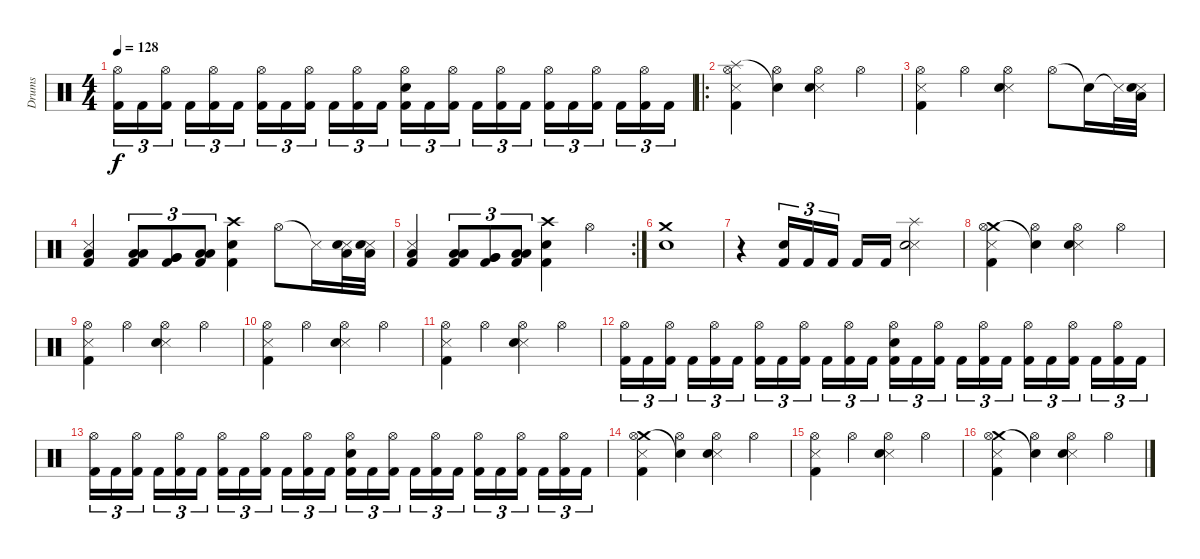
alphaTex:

\track ("Drums" "Drums") {instrument percussion}
\staff {score}
\articulation defaults
\ts (4 4)
\tempo 128
\clef neutral
\ks c
("Hi-Hat (open)" "Kick (hit) 2").16{tu (3 2) dy f} "Kick (hit) 2".16{tu (3 2)} ("Hi-Hat (open)" "Kick (hit) 2").16{tu (3 2)} "Kick (hit) 2".16{tu (3 2)} ("Hi-Hat (open)" "Kick (hit) 2").16{tu (3 2)} "Kick (hit) 2".16{tu (3 2)} ("Hi-Hat (open)" "Kick (hit) 2").16{tu (3 2)} "Kick (hit) 2".16{tu (3 2)} ("Hi-Hat (open)" "Kick (hit) 2").16{tu (3 2)} "Kick (hit) 2".16{tu (3 2)} ("Hi-Hat (open)" "Kick (hit) 2").16{tu (3 2)} "Kick (hit) 2".16{tu (3 2)} ("Hi-Hat (open)" "Electric Snare (hit)" "Kick (hit) 2").16{tu (3 2)} "Kick (hit) 2".16{tu (3 2)} ("Hi-Hat (open)" "Kick (hit) 2").16{tu (3 2)} "Kick (hit) 2".16{tu (3 2)} ("Hi-Hat (open)" "Kick (hit) 2").16{tu (3 2)} "Kick (hit) 2".16{tu (3 2)} ("Hi-Hat (open)" "Kick (hit) 2").16{tu (3 2)} "Kick (hit) 2".16{tu (3 2)} ("Hi-Hat (open)" "Kick (hit) 2").16{tu (3 2)} "Kick (hit) 2".16{tu (3 2)} ("Hi-Hat (open)" "Kick (hit) 2").16{tu (3 2)} "Kick (hit) 2".16{tu (3 2)} |
\ro
("Splash (hit)" "Snare (side stick) 3" "Hi-Hat (open)" "Kick (hit) 2").4 ("Snare (hit)"{t} "Hi-Hat (open)").4 ("Snare (side stick) 3" "Hi-Hat (open)" "Electric Snare (hit)").4 "Hi-Hat (open)".4 |
("Snare (side stick) 3" "Hi-Hat (open)" "Kick (hit) 2").4 "Hi-Hat (open)".4 ("Snare (side stick) 3" "Hi-Hat (open)" "Electric Snare (hit)").4 "Hi-Hat (open)".8 "Snare (hit)"{t}.16 "Snare (side stick) 3"{t}.32 ("Snare (side stick) 3" "Low Floor Tom (hit)" "Electric Snare (hit)").32 |
("Snare (side stick) 3" "Low Floor Tom (hit)" "Kick (hit) 2").4 ("Low Tom (hit)" "Low Tom (hit)" "Kick (hit) 2").8{tu (3 2)} ("Very Low Tom (hit)" "Very Low Tom (hit)" "Kick (hit) 2").8{tu (3 2)} ("Low Floor Tom (hit)" "Low Floor Tom (hit)" "Kick (hit) 2").8{tu (3 2)} ("Crash high (hit)" "Electric Snare (hit)" "Kick (hit) 2").4 "Hi-Hat (open)".8 "Snare (side stick) 3"{t}.16 ("Snare (side stick) 3" "Low Floor Tom (hit)" "Electric Snare (hit)").32 ("Snare (side stick) 3" "Low Floor Tom (hit)" "Electric Snare (hit)").32 |
\rc 2
("Snare (side stick) 3" "Low Floor Tom (hit)" "Kick (hit) 2").4 ("Low Tom (hit)" "Low Tom (hit)" "Kick (hit) 2").8{tu (3 2)} ("Very Low Tom (hit)" "Very Low Tom (hit)" "Kick (hit) 2").8{tu (3 2)} ("Low Floor Tom (hit)" "Low Floor Tom (hit)" "Kick (hit) 2").8{tu (3 2)} ("Crash high (hit)" "Electric Snare (hit)" "Kick (hit) 2").4 "Hi-Hat (open)".4 |
("Crash medium (hit)" "Electric Snare (hit)").1 |
r.4 ("Electric Snare (hit)" "Kick (hit) 2").16{tu (3 2)} "Kick (hit) 2".16{tu (3 2)} "Kick (hit) 2".16{tu (3 2)} "Kick (hit) 2".16 "Kick (hit) 2".16 ("Splash (hit)" "Snare (side stick) 3" "Electric Snare (hit)").2 |
("Crash medium (hit)" "Snare (side stick) 3" "Hi-Hat (open)" "Kick (hit) 2").4 ("Snare (hit)"{t} "Hi-Hat (open)").4 ("Snare (side stick) 3" "Hi-Hat (open)" "Electric Snare (hit)").4 "Hi-Hat (open)".4 |
("Snare (side stick) 3" "Hi-Hat (open)" "Kick (hit) 2").4 "Hi-Hat (open)".4 ("Snare (side stick) 3" "Hi-Hat (open)" "Electric Snare (hit)").4 "Hi-Hat (open)".4 |
("Snare (side stick) 3" "Hi-Hat (open)" "Kick (hit) 2").4 "Hi-Hat (open)".4 ("Snare (side stick) 3" "Hi-Hat (open)" "Electric Snare (hit)").4 "Hi-Hat (open)".4 |
("Snare (side stick) 3" "Hi-Hat (open)" "Kick (hit) 2").4 "Hi-Hat (open)".4 ("Snare (side stick) 3" "Hi-Hat (open)" "Electric Snare (hit)").4 "Hi-Hat (open)".4 |
("Hi-Hat (open)" "Kick (hit) 2").16{tu (3 2)} "Kick (hit) 2".16{tu (3 2)} ("Hi-Hat (open)" "Kick (hit) 2").16{tu (3 2)} "Kick (hit) 2".16{tu (3 2)} ("Hi-Hat (open)" "Kick (hit) 2").16{tu (3 2)} "Kick (hit) 2".16{tu (3 2)} ("Hi-Hat (open)" "Kick (hit) 2").16{tu (3 2)} "Kick (hit) 2".16{tu (3 2)} ("Hi-Hat (open)" "Kick (hit) 2").16{tu (3 2)} "Kick (hit) 2".16{tu (3 2)} ("Hi-Hat (open)" "Kick (hit) 2").16{tu (3 2)} "Kick (hit) 2".16{tu (3 2)} ("Hi-Hat (open)" "Electric Snare (hit)" "Kick (hit) 2").16{tu (3 2)} "Kick (hit) 2".16{tu (3 2)} ("Hi-Hat (open)" "Kick (hit) 2").16{tu (3 2)} "Kick (hit) 2".16{tu (3 2)} ("Hi-Hat (open)" "Kick (hit) 2").16{tu (3 2)} "Kick (hit) 2".16{tu (3 2)} ("Hi-Hat (open)" "Kick (hit) 2").16{tu (3 2)} "Kick (hit) 2".16{tu (3 2)} ("Hi-Hat (open)" "Kick (hit) 2").16{tu (3 2)} "Kick (hit) 2".16{tu (3 2)} ("Hi-Hat (open)" "Kick (hit) 2").16{tu (3 2)} "Kick (hit) 2".16{tu (3 2)} |
("Hi-Hat (open)" "Kick (hit) 2").16{tu (3 2)} "Kick (hit) 2".16{tu (3 2)} ("Hi-Hat (open)" "Kick (hit) 2").16{tu (3 2)} "Kick (hit) 2".16{tu (3 2)} ("Hi-Hat (open)" "Kick (hit) 2").16{tu (3 2)} "Kick (hit) 2".16{tu (3 2)} ("Hi-Hat (open)" "Kick (hit) 2").16{tu (3 2)} "Kick (hit) 2".16{tu (3 2)} ("Hi-Hat (open)" "Kick (hit) 2").16{tu (3 2)} "Kick (hit) 2".16{tu (3 2)} ("Hi-Hat (open)" "Kick (hit) 2").16{tu (3 2)} "Kick (hit) 2".16{tu (3 2)} ("Hi-Hat (open)" "Electric Snare (hit)" "Kick (hit) 2").16{tu (3 2)} "Kick (hit) 2".16{tu (3 2)} ("Hi-Hat (open)" "Kick (hit) 2").16{tu (3 2)} "Kick (hit) 2".16{tu (3 2)} ("Hi-Hat (open)" "Kick (hit) 2").16{tu (3 2)} "Kick (hit) 2".16{tu (3 2)} ("Hi-Hat (open)" "Kick (hit) 2").16{tu (3 2)} "Kick (hit) 2".16{tu (3 2)} ("Hi-Hat (open)" "Kick (hit) 2").16{tu (3 2)} "Kick (hit) 2".16{tu (3 2)} ("Hi-Hat (open)" "Kick (hit) 2").16{tu (3 2)} "Kick (hit) 2".16{tu (3 2)} |
("Crash medium (hit)" "Snare (side stick) 3" "Hi-Hat (open)" "Kick (hit) 2").4 ("Snare (hit)"{t} "Hi-Hat (open)").4 ("Snare (side stick) 3" "Hi-Hat (open)" "Electric Snare (hit)").4 "Hi-Hat (open)".4 |
("Snare (side stick) 3" "Hi-Hat (open)" "Kick (hit) 2").4 "Hi-Hat (open)".4 ("Snare (side stick) 3" "Hi-Hat (open)" "Electric Snare (hit)").4 "Hi-Hat (open)".4 |
("Crash medium (hit)" "Snare (side stick) 3" "Hi-Hat (open)" "Kick (hit) 2").4 ("Snare (hit)"{t} "Hi-Hat (open)").4 ("Snare (side stick) 3" "Hi-Hat (open)" "Electric Snare (hit)").4 "Hi-Hat (open)".4
